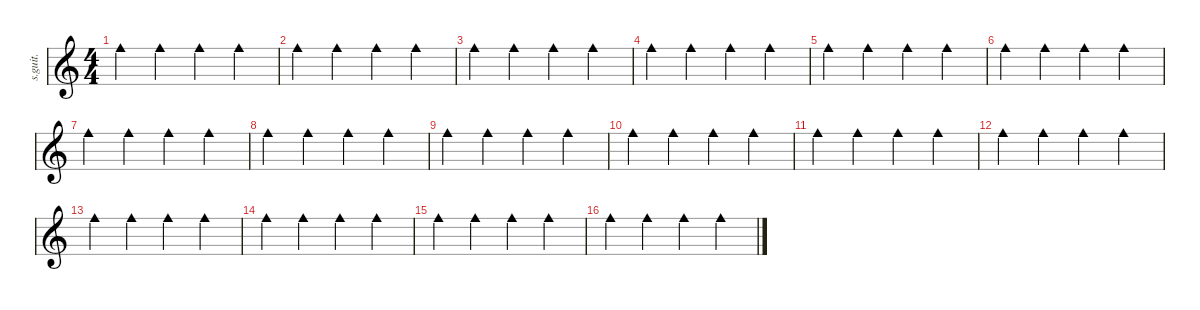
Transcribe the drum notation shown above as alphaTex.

\defaultSystemsLayout 4
\hideDynamics
\bracketExtendMode nobrackets
\track ("Cowbell" "s.guit.") {instrument percussion}
\staff {score}
\articulation defaults
\ts (4 4)
\tempo (107 hide)
\clef g2
\ks c "Cowbell medium (hit)".4{dy mp} "Cowbell medium (hit)".4 "Cowbell medium (hit)".4 "Cowbell medium (hit)".4
|
"Cowbell medium (hit)".4 "Cowbell medium (hit)".4 "Cowbell medium (hit)".4 "Cowbell medium (hit)".4 |
"Cowbell medium (hit)".4 "Cowbell medium (hit)".4 "Cowbell medium (hit)".4 "Cowbell medium (hit)".4 |
"Cowbell medium (hit)".4 "Cowbell medium (hit)".4 "Cowbell medium (hit)".4 "Cowbell medium (hit)".4 |
"Cowbell medium (hit)".4 "Cowbell medium (hit)".4 "Cowbell medium (hit)".4 "Cowbell medium (hit)".4 |
"Cowbell medium (hit)".4 "Cowbell medium (hit)".4 "Cowbell medium (hit)".4 "Cowbell medium (hit)".4 |
"Cowbell medium (hit)".4 "Cowbell medium (hit)".4 "Cowbell medium (hit)".4 "Cowbell medium (hit)".4 |
"Cowbell medium (hit)".4 "Cowbell medium (hit)".4 "Cowbell medium (hit)".4 "Cowbell medium (hit)".4 |
"Cowbell medium (hit)".4 "Cowbell medium (hit)".4 "Cowbell medium (hit)".4 "Cowbell medium (hit)".4 |
"Cowbell medium (hit)".4 "Cowbell medium (hit)".4 "Cowbell medium (hit)".4 "Cowbell medium (hit)".4 |
"Cowbell medium (hit)".4 "Cowbell medium (hit)".4 "Cowbell medium (hit)".4 "Cowbell medium (hit)".4 |
"Cowbell medium (hit)".4 "Cowbell medium (hit)".4 "Cowbell medium (hit)".4 "Cowbell medium (hit)".4 |
"Cowbell medium (hit)".4 "Cowbell medium (hit)".4 "Cowbell medium (hit)".4 "Cowbell medium (hit)".4 |
"Cowbell medium (hit)".4 "Cowbell medium (hit)".4 "Cowbell medium (hit)".4 "Cowbell medium (hit)".4 |
"Cowbell medium (hit)".4 "Cowbell medium (hit)".4 "Cowbell medium (hit)".4 "Cowbell medium (hit)".4 |
"Cowbell medium (hit)".4 "Cowbell medium (hit)".4 "Cowbell medium (hit)".4 "Cowbell medium (hit)".4
